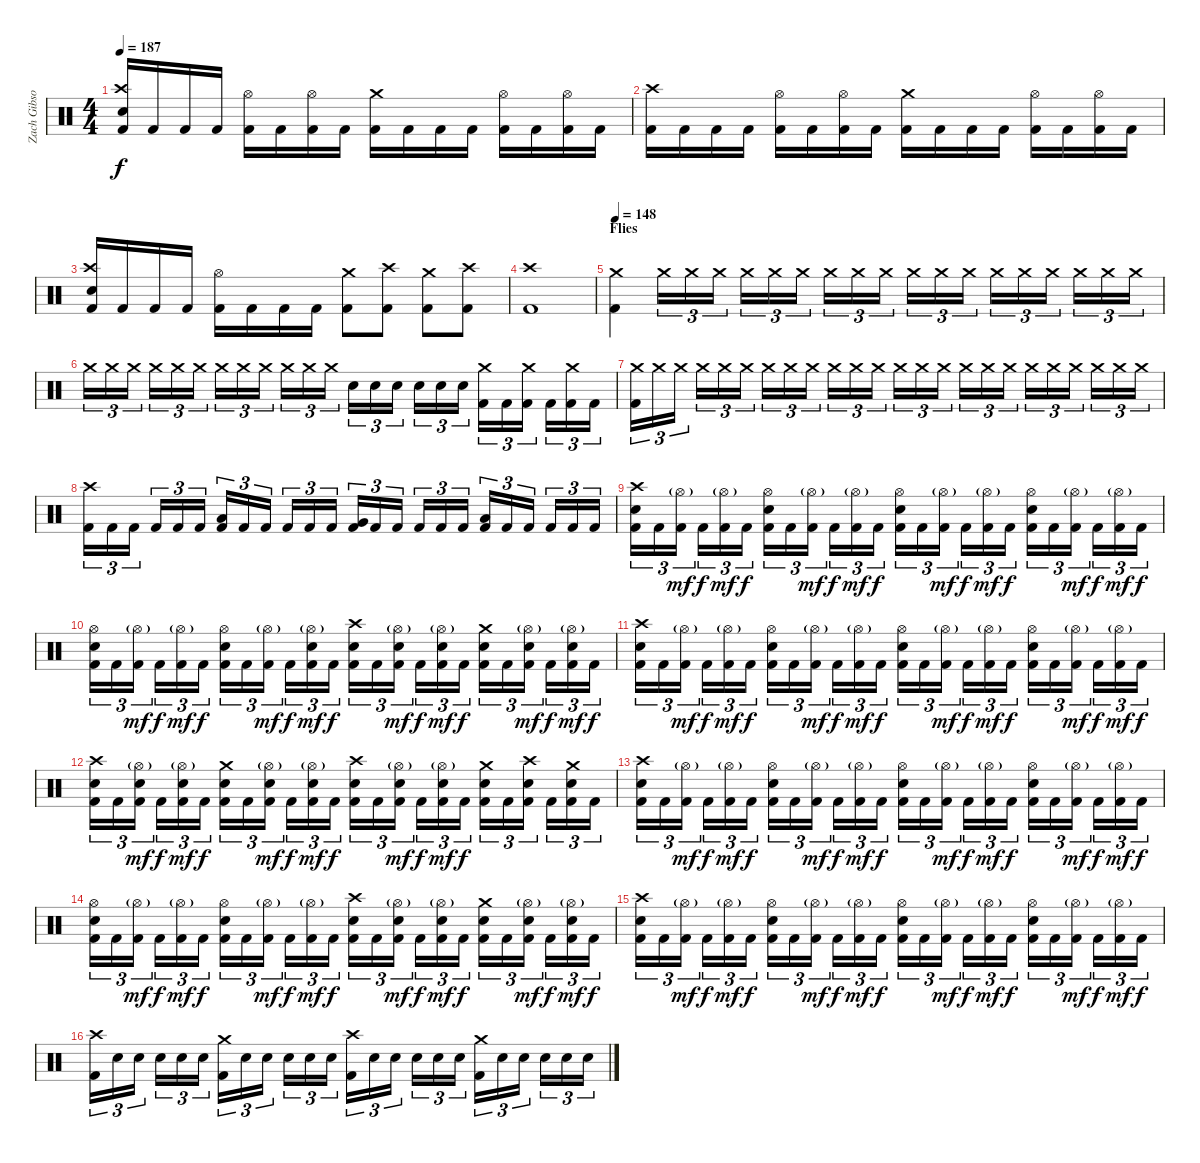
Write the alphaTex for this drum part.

\track ("Zach Gibson (Ex-Drums)" "Zach Gibso") {instrument percussion}
\staff {score}
\articulation defaults
\ts (4 4)
\tempo 187
\clef neutral
\ks c
("Snare (hit) 2" "Crash high (hit)" "Kick (hit) 2").16{dy f} "Kick (hit) 2".16 "Kick (hit) 2".16 "Kick (hit) 2".16 ("Hi-Hat (open)" "Kick (hit) 2").16 "Kick (hit) 2".16 ("Hi-Hat (open)" "Kick (hit) 2").16 "Kick (hit) 2".16 ("Crash medium (hit)" "Kick (hit) 2").16 "Kick (hit) 2".16 "Kick (hit) 2".16 "Kick (hit) 2".16 ("Hi-Hat (open)" "Kick (hit) 2").16 "Kick (hit) 2".16 ("Hi-Hat (open)" "Kick (hit) 2").16 "Kick (hit) 2".16 |
("Crash high (hit)" "Kick (hit) 2").16 "Kick (hit) 2".16 "Kick (hit) 2".16 "Kick (hit) 2".16 ("Hi-Hat (open)" "Kick (hit) 2").16 "Kick (hit) 2".16 ("Hi-Hat (open)" "Kick (hit) 2").16 "Kick (hit) 2".16 ("Crash medium (hit)" "Kick (hit) 2").16 "Kick (hit) 2".16 "Kick (hit) 2".16 "Kick (hit) 2".16 ("Hi-Hat (open)" "Kick (hit) 2").16 "Kick (hit) 2".16 ("Hi-Hat (open)" "Kick (hit) 2").16 "Kick (hit) 2".16 |
("Snare (hit) 2" "Crash high (hit)" "Kick (hit) 2").16 "Kick (hit) 2".16 "Kick (hit) 2".16 "Kick (hit) 2".16 ("Hi-Hat (open)" "Kick (hit) 2").16 "Kick (hit) 2".16 "Kick (hit) 2".16 "Kick (hit) 2".16 ("Kick (hit) 2" "Crash medium (hit)").8 ("Kick (hit) 2" "Crash high (hit)").8 ("Kick (hit) 2" "Crash medium (hit)").8 ("Kick (hit) 2" "Crash high (hit)").8 |
("Crash high (hit)" "Kick (hit) 2").1 |
\section ("" "Flies")
\tempo 148
("Crash medium (hit)" "Kick (hit) 2").4 "Crash medium (hit)".16{tu (3 2)} "Crash medium (hit)".16{tu (3 2)} "Crash medium (hit)".16{tu (3 2)} "Crash medium (hit)".16{tu (3 2)} "Crash medium (hit)".16{tu (3 2)} "Crash medium (hit)".16{tu (3 2)} "Crash medium (hit)".16{tu (3 2)} "Crash medium (hit)".16{tu (3 2)} "Crash medium (hit)".16{tu (3 2)} "Crash medium (hit)".16{tu (3 2)} "Crash medium (hit)".16{tu (3 2)} "Crash medium (hit)".16{tu (3 2)} "Crash medium (hit)".16{tu (3 2)} "Crash medium (hit)".16{tu (3 2)} "Crash medium (hit)".16{tu (3 2)} "Crash medium (hit)".16{tu (3 2)} "Crash medium (hit)".16{tu (3 2)} "Crash medium (hit)".16{tu (3 2)} |
"Crash medium (hit)".16{tu (3 2)} "Crash medium (hit)".16{tu (3 2)} "Crash medium (hit)".16{tu (3 2)} "Crash medium (hit)".16{tu (3 2)} "Crash medium (hit)".16{tu (3 2)} "Crash medium (hit)".16{tu (3 2)} "Crash medium (hit)".16{tu (3 2)} "Crash medium (hit)".16{tu (3 2)} "Crash medium (hit)".16{tu (3 2)} "Crash medium (hit)".16{tu (3 2)} "Crash medium (hit)".16{tu (3 2)} "Crash medium (hit)".16{tu (3 2)} "Snare (hit) 2".16{tu (3 2)} "Snare (hit) 2".16{tu (3 2)} "Snare (hit) 2".16{tu (3 2)} "Snare (hit) 2".16{tu (3 2)} "Snare (hit) 2".16{tu (3 2)} "Snare (hit) 2".16{tu (3 2)} ("Crash medium (hit)" "Kick (hit) 2").16{tu (3 2)} "Kick (hit) 2".16{tu (3 2)} ("Crash medium (hit)" "Kick (hit) 2").16{tu (3 2)} "Kick (hit) 2".16{tu (3 2)} ("Crash medium (hit)" "Kick (hit) 2").16{tu (3 2)} "Kick (hit) 2".16{tu (3 2)} |
("Crash medium (hit)" "Kick (hit) 2").16{tu (3 2)} "Crash medium (hit)".16{tu (3 2)} "Crash medium (hit)".16{tu (3 2)} "Crash medium (hit)".16{tu (3 2)} "Crash medium (hit)".16{tu (3 2)} "Crash medium (hit)".16{tu (3 2)} "Crash medium (hit)".16{tu (3 2)} "Crash medium (hit)".16{tu (3 2)} "Crash medium (hit)".16{tu (3 2)} "Crash medium (hit)".16{tu (3 2)} "Crash medium (hit)".16{tu (3 2)} "Crash medium (hit)".16{tu (3 2)} "Crash medium (hit)".16{tu (3 2)} "Crash medium (hit)".16{tu (3 2)} "Crash medium (hit)".16{tu (3 2)} "Crash medium (hit)".16{tu (3 2)} "Crash medium (hit)".16{tu (3 2)} "Crash medium (hit)".16{tu (3 2)} "Crash medium (hit)".16{tu (3 2)} "Crash medium (hit)".16{tu (3 2)} "Crash medium (hit)".16{tu (3 2)} "Crash medium (hit)".16{tu (3 2)} "Crash medium (hit)".16{tu (3 2)} "Crash medium (hit)".16{tu (3 2)} |
("Crash high (hit)" "Kick (hit) 2").16{tu (3 2)} "Kick (hit) 2".16{tu (3 2)} "Kick (hit) 2".16{tu (3 2)} "Kick (hit) 2".16{tu (3 2)} "Kick (hit) 2".16{tu (3 2)} "Kick (hit) 2".16{tu (3 2)} ("Low Tom (hit)" "Kick (hit) 2").16{tu (3 2)} "Kick (hit) 2".16{tu (3 2)} "Kick (hit) 2".16{tu (3 2)} "Kick (hit) 2".16{tu (3 2)} "Kick (hit) 2".16{tu (3 2)} "Kick (hit) 2".16{tu (3 2)} ("Very Low Tom (hit)" "Kick (hit) 2").16{tu (3 2)} "Kick (hit) 2".16{tu (3 2)} "Kick (hit) 2".16{tu (3 2)} "Kick (hit) 2".16{tu (3 2)} "Kick (hit) 2".16{tu (3 2)} "Kick (hit) 2".16{tu (3 2)} ("Low Floor Tom (hit)" "Kick (hit) 2").16{tu (3 2)} "Kick (hit) 2".16{tu (3 2)} "Kick (hit) 2".16{tu (3 2)} "Kick (hit) 2".16{tu (3 2)} "Kick (hit) 2".16{tu (3 2)} "Kick (hit) 2".16{tu (3 2)} |
("Crash high (hit)" "Snare (hit) 2" "Kick (hit) 2").16{tu (3 2)} "Kick (hit) 2".16{tu (3 2)} ("Hi-Hat (open)"{g} "Kick (hit) 2").16{tu (3 2) dy mf} "Kick (hit) 2".16{tu (3 2) dy f} ("Hi-Hat (open)"{g} "Kick (hit) 2").16{tu (3 2) dy mf} "Kick (hit) 2".16{tu (3 2) dy f} ("Hi-Hat (open)" "Snare (hit) 2" "Kick (hit) 2").16{tu (3 2)} "Kick (hit) 2".16{tu (3 2)} ("Hi-Hat (open)"{g} "Kick (hit) 2").16{tu (3 2) dy mf} "Kick (hit) 2".16{tu (3 2) dy f} ("Hi-Hat (open)"{g} "Kick (hit) 2").16{tu (3 2) dy mf} "Kick (hit) 2".16{tu (3 2) dy f} ("Hi-Hat (open)" "Snare (hit) 2" "Kick (hit) 2").16{tu (3 2)} "Kick (hit) 2".16{tu (3 2)} ("Hi-Hat (open)"{g} "Kick (hit) 2").16{tu (3 2) dy mf} "Kick (hit) 2".16{tu (3 2) dy f} ("Hi-Hat (open)"{g} "Kick (hit) 2").16{tu (3 2) dy mf} "Kick (hit) 2".16{tu (3 2) dy f} ("Hi-Hat (open)" "Snare (hit) 2" "Kick (hit) 2").16{tu (3 2)} "Kick (hit) 2".16{tu (3 2)} ("Hi-Hat (open)"{g} "Kick (hit) 2").16{tu (3 2) dy mf} "Kick (hit) 2".16{tu (3 2) dy f} ("Hi-Hat (open)"{g} "Kick (hit) 2").16{tu (3 2) dy mf} "Kick (hit) 2".16{tu (3 2) dy f} |
("Hi-Hat (open)" "Snare (hit) 2" "Kick (hit) 2").16{tu (3 2)} "Kick (hit) 2".16{tu (3 2)} ("Hi-Hat (open)"{g} "Kick (hit) 2").16{tu (3 2) dy mf} "Kick (hit) 2".16{tu (3 2) dy f} ("Hi-Hat (open)"{g} "Kick (hit) 2").16{tu (3 2) dy mf} "Kick (hit) 2".16{tu (3 2) dy f} ("Hi-Hat (open)" "Snare (hit) 2" "Kick (hit) 2").16{tu (3 2)} "Kick (hit) 2".16{tu (3 2)} ("Hi-Hat (open)"{g} "Kick (hit) 2").16{tu (3 2) dy mf} "Kick (hit) 2".16{tu (3 2) dy f} ("Hi-Hat (open)"{g} "Snare (hit) 2" "Kick (hit) 2").16{tu (3 2) dy mf} "Kick (hit) 2".16{tu (3 2) dy f} ("Crash high (hit)" "Snare (hit) 2" "Kick (hit) 2").16{tu (3 2)} "Kick (hit) 2".16{tu (3 2)} ("Hi-Hat (open)"{g} "Snare (hit) 2" "Kick (hit) 2").16{tu (3 2) dy mf} "Kick (hit) 2".16{tu (3 2) dy f} ("Hi-Hat (open)"{g} "Snare (hit) 2" "Kick (hit) 2").16{tu (3 2) dy mf} "Kick (hit) 2".16{tu (3 2) dy f} ("Crash medium (hit)" "Snare (hit) 2" "Kick (hit) 2").16{tu (3 2)} "Kick (hit) 2".16{tu (3 2)} ("Hi-Hat (open)"{g} "Snare (hit) 2" "Kick (hit) 2").16{tu (3 2) dy mf} "Kick (hit) 2".16{tu (3 2) dy f} ("Hi-Hat (open)"{g} "Snare (hit) 2" "Kick (hit) 2").16{tu (3 2) dy mf} "Kick (hit) 2".16{tu (3 2) dy f} |
("Crash high (hit)" "Snare (hit) 2" "Kick (hit) 2").16{tu (3 2)} "Kick (hit) 2".16{tu (3 2)} ("Hi-Hat (open)"{g} "Kick (hit) 2").16{tu (3 2) dy mf} "Kick (hit) 2".16{tu (3 2) dy f} ("Hi-Hat (open)"{g} "Kick (hit) 2").16{tu (3 2) dy mf} "Kick (hit) 2".16{tu (3 2) dy f} ("Hi-Hat (open)" "Snare (hit) 2" "Kick (hit) 2").16{tu (3 2)} "Kick (hit) 2".16{tu (3 2)} ("Hi-Hat (open)"{g} "Kick (hit) 2").16{tu (3 2) dy mf} "Kick (hit) 2".16{tu (3 2) dy f} ("Hi-Hat (open)"{g} "Kick (hit) 2").16{tu (3 2) dy mf} "Kick (hit) 2".16{tu (3 2) dy f} ("Hi-Hat (open)" "Snare (hit) 2" "Kick (hit) 2").16{tu (3 2)} "Kick (hit) 2".16{tu (3 2)} ("Hi-Hat (open)"{g} "Kick (hit) 2").16{tu (3 2) dy mf} "Kick (hit) 2".16{tu (3 2) dy f} ("Hi-Hat (open)"{g} "Kick (hit) 2").16{tu (3 2) dy mf} "Kick (hit) 2".16{tu (3 2) dy f} ("Hi-Hat (open)" "Snare (hit) 2" "Kick (hit) 2").16{tu (3 2)} "Kick (hit) 2".16{tu (3 2)} ("Hi-Hat (open)"{g} "Kick (hit) 2").16{tu (3 2) dy mf} "Kick (hit) 2".16{tu (3 2) dy f} ("Hi-Hat (open)"{g} "Kick (hit) 2").16{tu (3 2) dy mf} "Kick (hit) 2".16{tu (3 2) dy f} |
("Crash high (hit)" "Snare (hit) 2" "Kick (hit) 2").16{tu (3 2)} "Kick (hit) 2".16{tu (3 2)} ("Hi-Hat (open)"{g} "Snare (hit) 2" "Kick (hit) 2").16{tu (3 2) dy mf} "Kick (hit) 2".16{tu (3 2) dy f} ("Hi-Hat (open)"{g} "Snare (hit) 2" "Kick (hit) 2").16{tu (3 2) dy mf} "Kick (hit) 2".16{tu (3 2) dy f} ("Crash medium (hit)" "Snare (hit) 2" "Kick (hit) 2").16{tu (3 2)} "Kick (hit) 2".16{tu (3 2)} ("Hi-Hat (open)"{g} "Snare (hit) 2" "Kick (hit) 2").16{tu (3 2) dy mf} "Kick (hit) 2".16{tu (3 2) dy f} ("Hi-Hat (open)"{g} "Snare (hit) 2" "Kick (hit) 2").16{tu (3 2) dy mf} "Kick (hit) 2".16{tu (3 2) dy f} ("Crash high (hit)" "Snare (hit) 2" "Kick (hit) 2").16{tu (3 2)} "Kick (hit) 2".16{tu (3 2)} ("Hi-Hat (open)"{g} "Snare (hit) 2" "Kick (hit) 2").16{tu (3 2) dy mf} "Kick (hit) 2".16{tu (3 2) dy f} ("Hi-Hat (open)"{g} "Snare (hit) 2" "Kick (hit) 2").16{tu (3 2) dy mf} "Kick (hit) 2".16{tu (3 2) dy f} ("Crash medium (hit)" "Snare (hit) 2" "Kick (hit) 2").16{tu (3 2)} "Kick (hit) 2".16{tu (3 2)} ("Crash high (hit)" "Snare (hit) 2" "Kick (hit) 2").16{tu (3 2)} "Kick (hit) 2".16{tu (3 2)} ("Crash medium (hit)" "Snare (hit) 2" "Kick (hit) 2").16{tu (3 2)} "Kick (hit) 2".16{tu (3 2)} |
("Crash high (hit)" "Snare (hit) 2" "Kick (hit) 2").16{tu (3 2)} "Kick (hit) 2".16{tu (3 2)} ("Hi-Hat (open)"{g} "Kick (hit) 2").16{tu (3 2) dy mf} "Kick (hit) 2".16{tu (3 2) dy f} ("Hi-Hat (open)"{g} "Kick (hit) 2").16{tu (3 2) dy mf} "Kick (hit) 2".16{tu (3 2) dy f} ("Hi-Hat (open)" "Snare (hit) 2" "Kick (hit) 2").16{tu (3 2)} "Kick (hit) 2".16{tu (3 2)} ("Hi-Hat (open)"{g} "Kick (hit) 2").16{tu (3 2) dy mf} "Kick (hit) 2".16{tu (3 2) dy f} ("Hi-Hat (open)"{g} "Kick (hit) 2").16{tu (3 2) dy mf} "Kick (hit) 2".16{tu (3 2) dy f} ("Hi-Hat (open)" "Snare (hit) 2" "Kick (hit) 2").16{tu (3 2)} "Kick (hit) 2".16{tu (3 2)} ("Hi-Hat (open)"{g} "Kick (hit) 2").16{tu (3 2) dy mf} "Kick (hit) 2".16{tu (3 2) dy f} ("Hi-Hat (open)"{g} "Kick (hit) 2").16{tu (3 2) dy mf} "Kick (hit) 2".16{tu (3 2) dy f} ("Hi-Hat (open)" "Snare (hit) 2" "Kick (hit) 2").16{tu (3 2)} "Kick (hit) 2".16{tu (3 2)} ("Hi-Hat (open)"{g} "Kick (hit) 2").16{tu (3 2) dy mf} "Kick (hit) 2".16{tu (3 2) dy f} ("Hi-Hat (open)"{g} "Kick (hit) 2").16{tu (3 2) dy mf} "Kick (hit) 2".16{tu (3 2) dy f} |
("Hi-Hat (open)" "Snare (hit) 2" "Kick (hit) 2").16{tu (3 2)} "Kick (hit) 2".16{tu (3 2)} ("Hi-Hat (open)"{g} "Kick (hit) 2").16{tu (3 2) dy mf} "Kick (hit) 2".16{tu (3 2) dy f} ("Hi-Hat (open)"{g} "Kick (hit) 2").16{tu (3 2) dy mf} "Kick (hit) 2".16{tu (3 2) dy f} ("Hi-Hat (open)" "Snare (hit) 2" "Kick (hit) 2").16{tu (3 2)} "Kick (hit) 2".16{tu (3 2)} ("Hi-Hat (open)"{g} "Kick (hit) 2").16{tu (3 2) dy mf} "Kick (hit) 2".16{tu (3 2) dy f} ("Hi-Hat (open)"{g} "Kick (hit) 2").16{tu (3 2) dy mf} "Kick (hit) 2".16{tu (3 2) dy f} ("Crash high (hit)" "Snare (hit) 2" "Kick (hit) 2").16{tu (3 2)} "Kick (hit) 2".16{tu (3 2)} ("Hi-Hat (open)"{g} "Snare (hit) 2" "Kick (hit) 2").16{tu (3 2) dy mf} "Kick (hit) 2".16{tu (3 2) dy f} ("Hi-Hat (open)"{g} "Snare (hit) 2" "Kick (hit) 2").16{tu (3 2) dy mf} "Kick (hit) 2".16{tu (3 2) dy f} ("Crash medium (hit)" "Snare (hit) 2" "Kick (hit) 2").16{tu (3 2)} "Kick (hit) 2".16{tu (3 2)} ("Hi-Hat (open)"{g} "Snare (hit) 2" "Kick (hit) 2").16{tu (3 2) dy mf} "Kick (hit) 2".16{tu (3 2) dy f} ("Hi-Hat (open)"{g} "Snare (hit) 2" "Kick (hit) 2").16{tu (3 2) dy mf} "Kick (hit) 2".16{tu (3 2) dy f} |
("Crash high (hit)" "Snare (hit) 2" "Kick (hit) 2").16{tu (3 2)} "Kick (hit) 2".16{tu (3 2)} ("Hi-Hat (open)"{g} "Kick (hit) 2").16{tu (3 2) dy mf} "Kick (hit) 2".16{tu (3 2) dy f} ("Hi-Hat (open)"{g} "Kick (hit) 2").16{tu (3 2) dy mf} "Kick (hit) 2".16{tu (3 2) dy f} ("Hi-Hat (open)" "Snare (hit) 2" "Kick (hit) 2").16{tu (3 2)} "Kick (hit) 2".16{tu (3 2)} ("Hi-Hat (open)"{g} "Kick (hit) 2").16{tu (3 2) dy mf} "Kick (hit) 2".16{tu (3 2) dy f} ("Hi-Hat (open)"{g} "Kick (hit) 2").16{tu (3 2) dy mf} "Kick (hit) 2".16{tu (3 2) dy f} ("Hi-Hat (open)" "Snare (hit) 2" "Kick (hit) 2").16{tu (3 2)} "Kick (hit) 2".16{tu (3 2)} ("Hi-Hat (open)"{g} "Kick (hit) 2").16{tu (3 2) dy mf} "Kick (hit) 2".16{tu (3 2) dy f} ("Hi-Hat (open)"{g} "Kick (hit) 2").16{tu (3 2) dy mf} "Kick (hit) 2".16{tu (3 2) dy f} ("Hi-Hat (open)" "Snare (hit) 2" "Kick (hit) 2").16{tu (3 2)} "Kick (hit) 2".16{tu (3 2)} ("Hi-Hat (open)"{g} "Kick (hit) 2").16{tu (3 2) dy mf} "Kick (hit) 2".16{tu (3 2) dy f} ("Hi-Hat (open)"{g} "Kick (hit) 2").16{tu (3 2) dy mf} "Kick (hit) 2".16{tu (3 2) dy f} |
("Crash high (hit)" "Kick (hit) 2").16{tu (3 2)} "Snare (hit) 2".16{tu (3 2)} "Snare (hit) 2".16{tu (3 2)} "Snare (hit) 2".16{tu (3 2)} "Snare (hit) 2".16{tu (3 2)} "Snare (hit) 2".16{tu (3 2)} ("Crash medium (hit)" "Kick (hit) 2").16{tu (3 2)} "Snare (hit) 2".16{tu (3 2)} "Snare (hit) 2".16{tu (3 2)} "Snare (hit) 2".16{tu (3 2)} "Snare (hit) 2".16{tu (3 2)} "Snare (hit) 2".16{tu (3 2)} ("Crash high (hit)" "Kick (hit) 2").16{tu (3 2)} "Snare (hit) 2".16{tu (3 2)} "Snare (hit) 2".16{tu (3 2)} "Snare (hit) 2".16{tu (3 2)} "Snare (hit) 2".16{tu (3 2)} "Snare (hit) 2".16{tu (3 2)} ("Crash medium (hit)" "Kick (hit) 2").16{tu (3 2)} "Snare (hit) 2".16{tu (3 2)} "Snare (hit) 2".16{tu (3 2)} "Snare (hit) 2".16{tu (3 2)} "Snare (hit) 2".16{tu (3 2)} "Snare (hit) 2".16{tu (3 2)}
